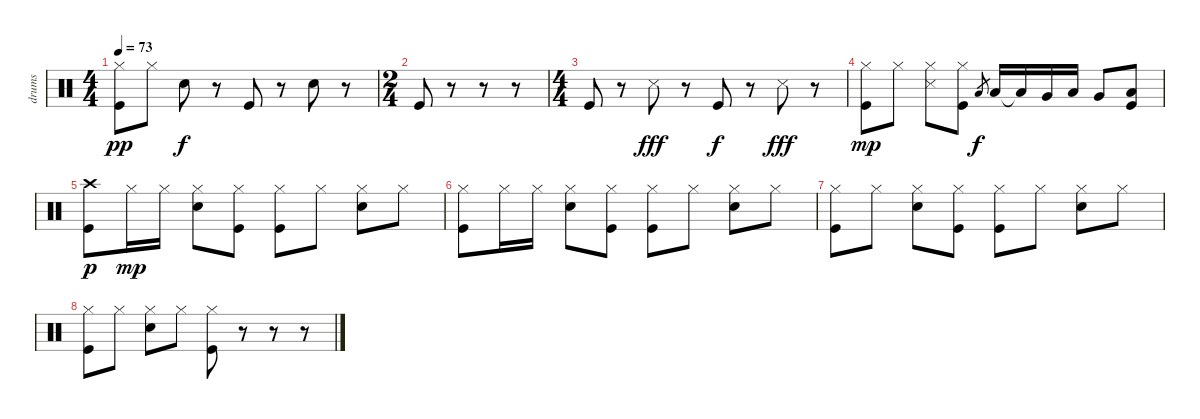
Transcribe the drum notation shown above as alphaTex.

\track ("drums" "drums") {instrument percussion}
\staff {score}
\articulation defaults
\ts (4 4)
\tempo 73
\clef neutral
\ks c
("Hi-Hat (closed)" "Kick (hit)").8{dy pp} "Hi-Hat (closed)".8 "Snare (hit) 2".8{dy f} r.8 "Kick (hit)".8 r.8 "Snare (hit) 2".8 r.8 |
\ts (2 4)
"Kick (hit)".8 r.8 r.8 r.8 |
\ts (4 4)
"Kick (hit)".8 r.8 "Metronome (hit)".8{dy fff} r.8 "Kick (hit)".8{dy f} r.8 "Metronome (hit)".8{dy fff} r.8 |
("Hi-Hat (closed)" "Kick (hit)").8{dy mp} "Hi-Hat (closed)".8 ("Metronome (hit)" "Hi-Hat (closed)").8 ("Hi-Hat (closed)" "Kick (hit)").8 "Low Tom (hit)".8{gr dy f} "Low Tom (hit)".16 "Low Tom (hit)"{t}.16 "Very Low Tom (hit)".16 "Low Tom (hit)".16 "Very Low Tom (hit)".8 ("Low Tom (hit)" "Kick (hit)").8 |
("Crash high (hit)" "Kick (hit)").8{dy p} "Hi-Hat (closed)".16{dy mp} "Hi-Hat (closed)".16 ("Electric Snare (hit)" "Hi-Hat (closed)").8 ("Hi-Hat (closed)" "Kick (hit)").8 ("Hi-Hat (closed)" "Kick (hit)").8 "Hi-Hat (closed)".8 ("Electric Snare (hit)" "Hi-Hat (closed)").8 "Hi-Hat (closed)".8 |
("Hi-Hat (closed)" "Kick (hit)").8 "Hi-Hat (closed)".16 "Hi-Hat (closed)".16 ("Electric Snare (hit)" "Hi-Hat (closed)").8 ("Hi-Hat (closed)" "Kick (hit)").8 ("Hi-Hat (closed)" "Kick (hit)").8 "Hi-Hat (closed)".8 ("Electric Snare (hit)" "Hi-Hat (closed)").8 "Hi-Hat (closed)".8 |
("Hi-Hat (closed)" "Kick (hit)").8 "Hi-Hat (closed)".8 ("Electric Snare (hit)" "Hi-Hat (closed)").8 ("Hi-Hat (closed)" "Kick (hit)").8 ("Hi-Hat (closed)" "Kick (hit)").8 "Hi-Hat (closed)".8 ("Electric Snare (hit)" "Hi-Hat (closed)").8 "Hi-Hat (closed)".8 |
("Hi-Hat (closed)" "Kick (hit)").8 "Hi-Hat (closed)".8 ("Electric Snare (hit)" "Hi-Hat (closed)").8 "Hi-Hat (closed)".8 ("Hi-Hat (closed)" "Kick (hit)").8 r.8 r.8 r.8
